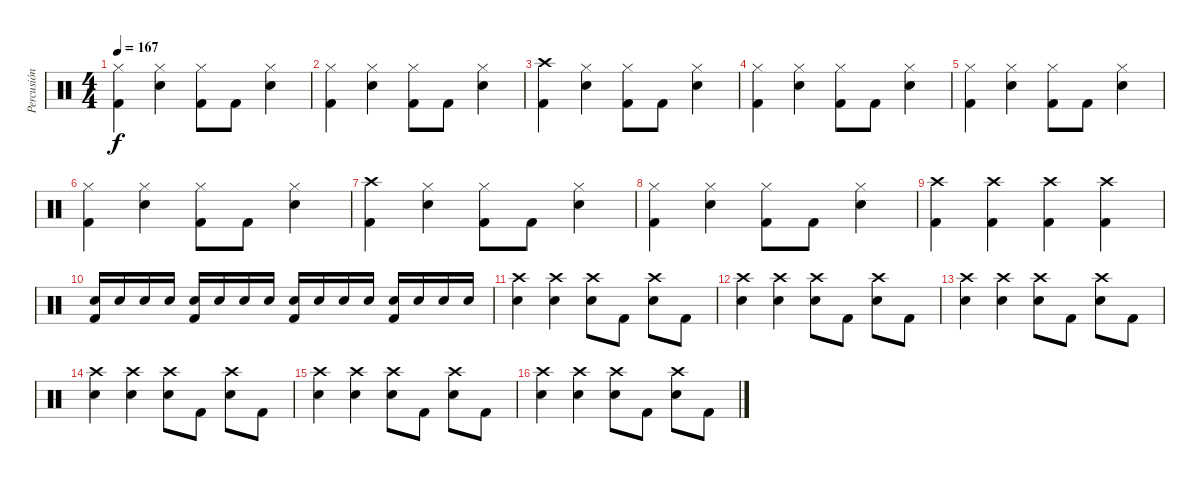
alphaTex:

\track ("Percusión" "Percusión") {instrument percussion}
\staff {score}
\articulation defaults
\ts (4 4)
\tempo 167
\clef neutral
\ks c
("Hi-Hat (closed)" "Kick (hit) 2").4{dy f} ("Hi-Hat (closed)" "Electric Snare (hit)").4 ("Hi-Hat (closed)" "Kick (hit) 2").8 "Kick (hit) 2".8 ("Hi-Hat (closed)" "Electric Snare (hit)").4 |
("Hi-Hat (closed)" "Kick (hit) 2").4 ("Hi-Hat (closed)" "Electric Snare (hit)").4 ("Hi-Hat (closed)" "Kick (hit) 2").8 "Kick (hit) 2".8 ("Hi-Hat (closed)" "Electric Snare (hit)").4 |
("Crash high (hit)" "Kick (hit) 2").4 ("Hi-Hat (closed)" "Electric Snare (hit)").4 ("Hi-Hat (closed)" "Kick (hit) 2").8 "Kick (hit) 2".8 ("Hi-Hat (closed)" "Electric Snare (hit)").4 |
("Hi-Hat (closed)" "Kick (hit) 2").4 ("Hi-Hat (closed)" "Electric Snare (hit)").4 ("Hi-Hat (closed)" "Kick (hit) 2").8 "Kick (hit) 2".8 ("Hi-Hat (closed)" "Electric Snare (hit)").4 |
("Hi-Hat (closed)" "Kick (hit) 2").4 ("Hi-Hat (closed)" "Electric Snare (hit)").4 ("Hi-Hat (closed)" "Kick (hit) 2").8 "Kick (hit) 2".8 ("Hi-Hat (closed)" "Electric Snare (hit)").4 |
("Hi-Hat (closed)" "Kick (hit) 2").4 ("Hi-Hat (closed)" "Electric Snare (hit)").4 ("Hi-Hat (closed)" "Kick (hit) 2").8 "Kick (hit) 2".8 ("Hi-Hat (closed)" "Electric Snare (hit)").4 |
("Crash high (hit)" "Kick (hit) 2").4 ("Hi-Hat (closed)" "Electric Snare (hit)").4 ("Hi-Hat (closed)" "Kick (hit) 2").8 "Kick (hit) 2".8 ("Hi-Hat (closed)" "Electric Snare (hit)").4 |
("Hi-Hat (closed)" "Kick (hit) 2").4 ("Hi-Hat (closed)" "Electric Snare (hit)").4 ("Hi-Hat (closed)" "Kick (hit) 2").8 "Kick (hit) 2".8 ("Hi-Hat (closed)" "Electric Snare (hit)").4 |
("Crash high (hit)" "Kick (hit) 2").4 ("Crash high (hit)" "Kick (hit) 2").4 ("Crash high (hit)" "Kick (hit) 2").4 ("Crash high (hit)" "Kick (hit) 2").4 |
("Electric Snare (hit)" "Kick (hit) 2").16 "Electric Snare (hit)".16 "Electric Snare (hit)".16 "Electric Snare (hit)".16 ("Electric Snare (hit)" "Kick (hit) 2").16 "Electric Snare (hit)".16 "Electric Snare (hit)".16 "Electric Snare (hit)".16 ("Electric Snare (hit)" "Kick (hit) 2").16 "Electric Snare (hit)".16 "Electric Snare (hit)".16 "Electric Snare (hit)".16 ("Electric Snare (hit)" "Kick (hit) 2").16 "Electric Snare (hit)".16 "Electric Snare (hit)".16 "Electric Snare (hit)".16 |
("Crash high (hit)" "Electric Snare (hit)").4 ("Crash high (hit)" "Electric Snare (hit)").4 ("Crash high (hit)" "Electric Snare (hit)").8 "Kick (hit) 2".8 ("Crash high (hit)" "Electric Snare (hit)").8 "Kick (hit) 2".8 |
("Crash high (hit)" "Electric Snare (hit)").4 ("Crash high (hit)" "Electric Snare (hit)").4 ("Crash high (hit)" "Electric Snare (hit)").8 "Kick (hit) 2".8 ("Crash high (hit)" "Electric Snare (hit)").8 "Kick (hit) 2".8 |
("Crash high (hit)" "Electric Snare (hit)").4 ("Crash high (hit)" "Electric Snare (hit)").4 ("Crash high (hit)" "Electric Snare (hit)").8 "Kick (hit) 2".8 ("Crash high (hit)" "Electric Snare (hit)").8 "Kick (hit) 2".8 |
("Crash high (hit)" "Electric Snare (hit)").4 ("Crash high (hit)" "Electric Snare (hit)").4 ("Crash high (hit)" "Electric Snare (hit)").8 "Kick (hit) 2".8 ("Crash high (hit)" "Electric Snare (hit)").8 "Kick (hit) 2".8 |
("Crash high (hit)" "Electric Snare (hit)").4 ("Crash high (hit)" "Electric Snare (hit)").4 ("Crash high (hit)" "Electric Snare (hit)").8 "Kick (hit) 2".8 ("Crash high (hit)" "Electric Snare (hit)").8 "Kick (hit) 2".8 |
("Crash high (hit)" "Electric Snare (hit)").4 ("Crash high (hit)" "Electric Snare (hit)").4 ("Crash high (hit)" "Electric Snare (hit)").8 "Kick (hit) 2".8 ("Crash high (hit)" "Electric Snare (hit)").8 "Kick (hit) 2".8
